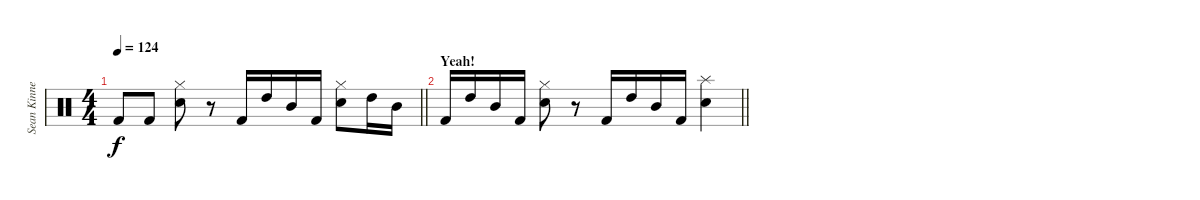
\track ("Sean Kinney" "Sean Kinne") {instrument percussion}
\staff {score}
\articulation defaults
\ts (4 4)
\tempo 124
\clef neutral
\barLineRight lightlight
\ks c "Kick (hit) 2".8{dy f} "Kick (hit) 2".8
("Hi-Hat (closed)" "Snare (hit) 2").8 r.8 "Kick (hit) 2".16 "High Tom (hit)".16 "Mid Tom (hit)".16 "Kick (hit) 2".16 ("Hi-Hat (closed)" "Snare (hit) 2").8 "High Tom (hit)".16 "Mid Tom (hit)".16 |
\section ("" "Yeah!")
\barLineRight lightlight "Kick (hit) 2".16 "High Tom (hit)".16 "Mid Tom (hit)".16 "Kick (hit) 2".16
("Hi-Hat (closed)" "Snare (hit) 2").8 r.8 "Kick (hit) 2".16 "High Tom (hit)".16 "Mid Tom (hit)".16 "Kick (hit) 2".16 ("Splash (hit)" "Snare (hit) 2").4
